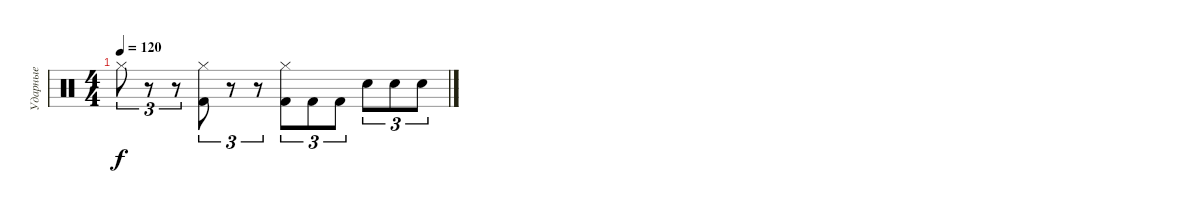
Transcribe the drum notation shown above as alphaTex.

\track ("Ударные" "Ударные") {instrument percussion}
\staff {score}
\articulation defaults
\ts (4 4)
\tempo 120
\clef neutral
\ks c "Hi-Hat (closed)".8{tu (3 2) dy f}
r.8{tu (3 2)} r.8{tu (3 2)} ("Hi-Hat (closed)" "Kick (hit) 2").8{tu (3 2)} r.8{tu (3 2)} r.8{tu (3 2)} ("Hi-Hat (closed)" "Kick (hit) 2").8{tu (3 2)} "Kick (hit) 2".8{tu (3 2)} "Kick (hit) 2".8{tu (3 2)} "Snare (hit) 2".8{tu (3 2)} "Snare (hit) 2".8{tu (3 2)} "Snare (hit) 2".8{tu (3 2)}
